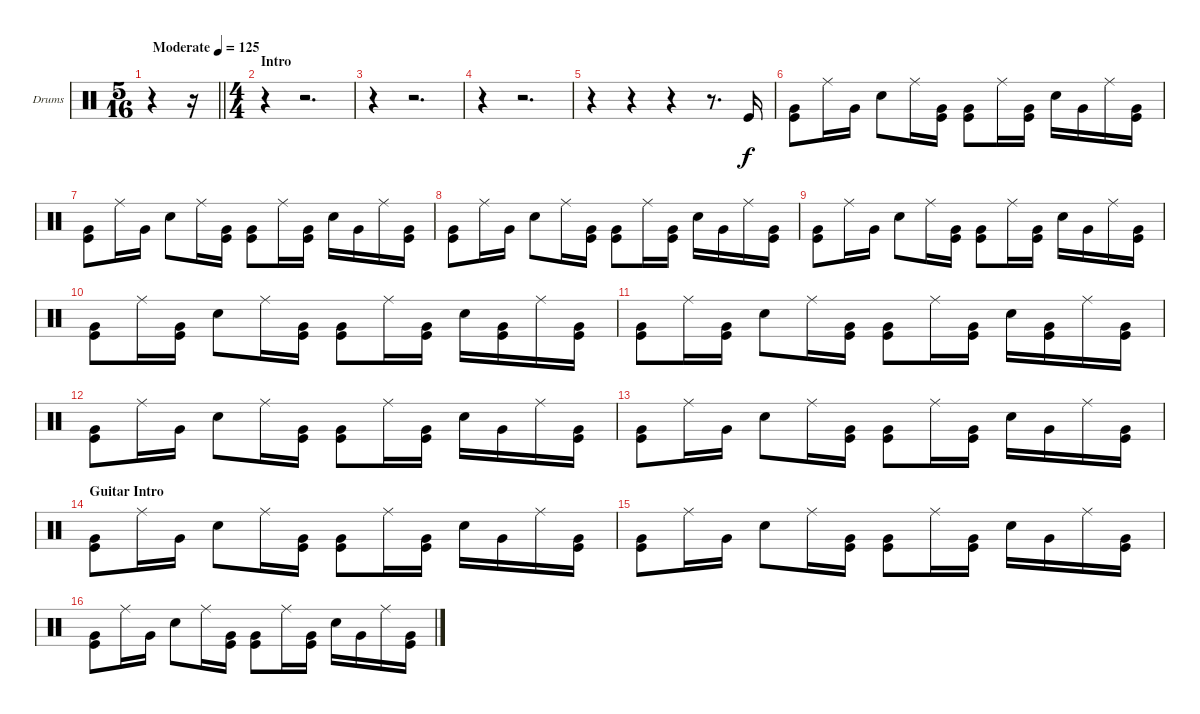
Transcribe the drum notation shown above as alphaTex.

\bracketExtendMode groupsimilarinstruments
\firstSystemTrackNameOrientation horizontal
\otherSystemsTrackNameOrientation horizontal
\track ("Drumkit" "Drums") {instrument percussion}
\staff {score}
\articulation defaults
\ts (5 16)
\tempo (125 "Moderate")
\clef neutral
\barLineRight lightlight
\ks c
r.4{dy f} r.16 |
\ts (4 4)
\section ("" "Intro")
r.4 r.2{d} |
r.4 r.2{d} |
r.4 r.2{d} |
r.4 r.4 r.4 r.8{d} "Kick (hit)".16 |
("Kick (hit)" "Very Low Tom (hit)").8 "Ride (middle)".16 "Very Low Tom (hit)".16 "Snare (hit) 2".8 "Ride (middle)".16 ("Kick (hit)" "Very Low Tom (hit)").16 ("Kick (hit)" "Very Low Tom (hit)").8 "Ride (middle)".16 ("Very Low Tom (hit)" "Kick (hit)").16 "Snare (hit) 2".16 "Very Low Tom (hit)".16 "Ride (middle)".16 ("Kick (hit)" "Very Low Tom (hit)").16 |
("Kick (hit)" "Very Low Tom (hit)").8 "Ride (middle)".16 "Very Low Tom (hit)".16 "Snare (hit) 2".8 "Ride (middle)".16 ("Kick (hit)" "Very Low Tom (hit)").16 ("Kick (hit)" "Very Low Tom (hit)").8 "Ride (middle)".16 ("Very Low Tom (hit)" "Kick (hit)").16 "Snare (hit) 2".16 "Very Low Tom (hit)".16 "Ride (middle)".16 ("Kick (hit)" "Very Low Tom (hit)").16 |
("Kick (hit)" "Very Low Tom (hit)").8 "Ride (middle)".16 "Very Low Tom (hit)".16 "Snare (hit) 2".8 "Ride (middle)".16 ("Kick (hit)" "Very Low Tom (hit)").16 ("Kick (hit)" "Very Low Tom (hit)").8 "Ride (middle)".16 ("Very Low Tom (hit)" "Kick (hit)").16 "Snare (hit) 2".16 "Very Low Tom (hit)".16 "Ride (middle)".16 ("Kick (hit)" "Very Low Tom (hit)").16 |
("Kick (hit)" "Very Low Tom (hit)").8 "Ride (middle)".16 "Very Low Tom (hit)".16 "Snare (hit) 2".8 "Ride (middle)".16 ("Kick (hit)" "Very Low Tom (hit)").16 ("Kick (hit)" "Very Low Tom (hit)").8 "Ride (middle)".16 ("Very Low Tom (hit)" "Kick (hit)").16 "Snare (hit) 2".16 "Very Low Tom (hit)".16 "Ride (middle)".16 ("Kick (hit)" "Very Low Tom (hit)").16 |
("Kick (hit)" "Very Low Tom (hit)").8 "Ride (middle)".16 ("Very Low Tom (hit)" "Kick (hit)").16 "Snare (hit) 2".8 "Ride (middle)".16 ("Kick (hit)" "Very Low Tom (hit)").16 ("Kick (hit)" "Very Low Tom (hit)").8 "Ride (middle)".16 ("Very Low Tom (hit)" "Kick (hit)").16 "Snare (hit) 2".16 ("Very Low Tom (hit)" "Kick (hit)").16 "Ride (middle)".16 ("Kick (hit)" "Very Low Tom (hit)").16 |
("Kick (hit)" "Very Low Tom (hit)").8 "Ride (middle)".16 ("Very Low Tom (hit)" "Kick (hit)").16 "Snare (hit) 2".8 "Ride (middle)".16 ("Kick (hit)" "Very Low Tom (hit)").16 ("Kick (hit)" "Very Low Tom (hit)").8 "Ride (middle)".16 ("Very Low Tom (hit)" "Kick (hit)").16 "Snare (hit) 2".16 ("Very Low Tom (hit)" "Kick (hit)").16 "Ride (middle)".16 ("Kick (hit)" "Very Low Tom (hit)").16 |
("Kick (hit)" "Very Low Tom (hit)").8 "Ride (middle)".16 "Very Low Tom (hit)".16 "Snare (hit) 2".8 "Ride (middle)".16 ("Kick (hit)" "Very Low Tom (hit)").16 ("Kick (hit)" "Very Low Tom (hit)").8 "Ride (middle)".16 ("Very Low Tom (hit)" "Kick (hit)").16 "Snare (hit) 2".16 "Very Low Tom (hit)".16 "Ride (middle)".16 ("Kick (hit)" "Very Low Tom (hit)").16 |
("Kick (hit)" "Very Low Tom (hit)").8 "Ride (middle)".16 "Very Low Tom (hit)".16 "Snare (hit) 2".8 "Ride (middle)".16 ("Kick (hit)" "Very Low Tom (hit)").16 ("Kick (hit)" "Very Low Tom (hit)").8 "Ride (middle)".16 ("Very Low Tom (hit)" "Kick (hit)").16 "Snare (hit) 2".16 "Very Low Tom (hit)".16 "Ride (middle)".16 ("Kick (hit)" "Very Low Tom (hit)").16 |
\section ("" "Guitar Intro")
("Kick (hit)" "Very Low Tom (hit)").8 "Ride (middle)".16 "Very Low Tom (hit)".16 "Snare (hit) 2".8 "Ride (middle)".16 ("Kick (hit)" "Very Low Tom (hit)").16 ("Kick (hit)" "Very Low Tom (hit)").8 "Ride (middle)".16 ("Very Low Tom (hit)" "Kick (hit)").16 "Snare (hit) 2".16 "Very Low Tom (hit)".16 "Ride (middle)".16 ("Kick (hit)" "Very Low Tom (hit)").16 |
("Kick (hit)" "Very Low Tom (hit)").8 "Ride (middle)".16 "Very Low Tom (hit)".16 "Snare (hit) 2".8 "Ride (middle)".16 ("Kick (hit)" "Very Low Tom (hit)").16 ("Kick (hit)" "Very Low Tom (hit)").8 "Ride (middle)".16 ("Very Low Tom (hit)" "Kick (hit)").16 "Snare (hit) 2".16 "Very Low Tom (hit)".16 "Ride (middle)".16 ("Kick (hit)" "Very Low Tom (hit)").16 |
("Kick (hit)" "Very Low Tom (hit)").8 "Ride (middle)".16 "Very Low Tom (hit)".16 "Snare (hit) 2".8 "Ride (middle)".16 ("Kick (hit)" "Very Low Tom (hit)").16 ("Kick (hit)" "Very Low Tom (hit)").8 "Ride (middle)".16 ("Very Low Tom (hit)" "Kick (hit)").16 "Snare (hit) 2".16 "Very Low Tom (hit)".16 "Ride (middle)".16 ("Kick (hit)" "Very Low Tom (hit)").16
